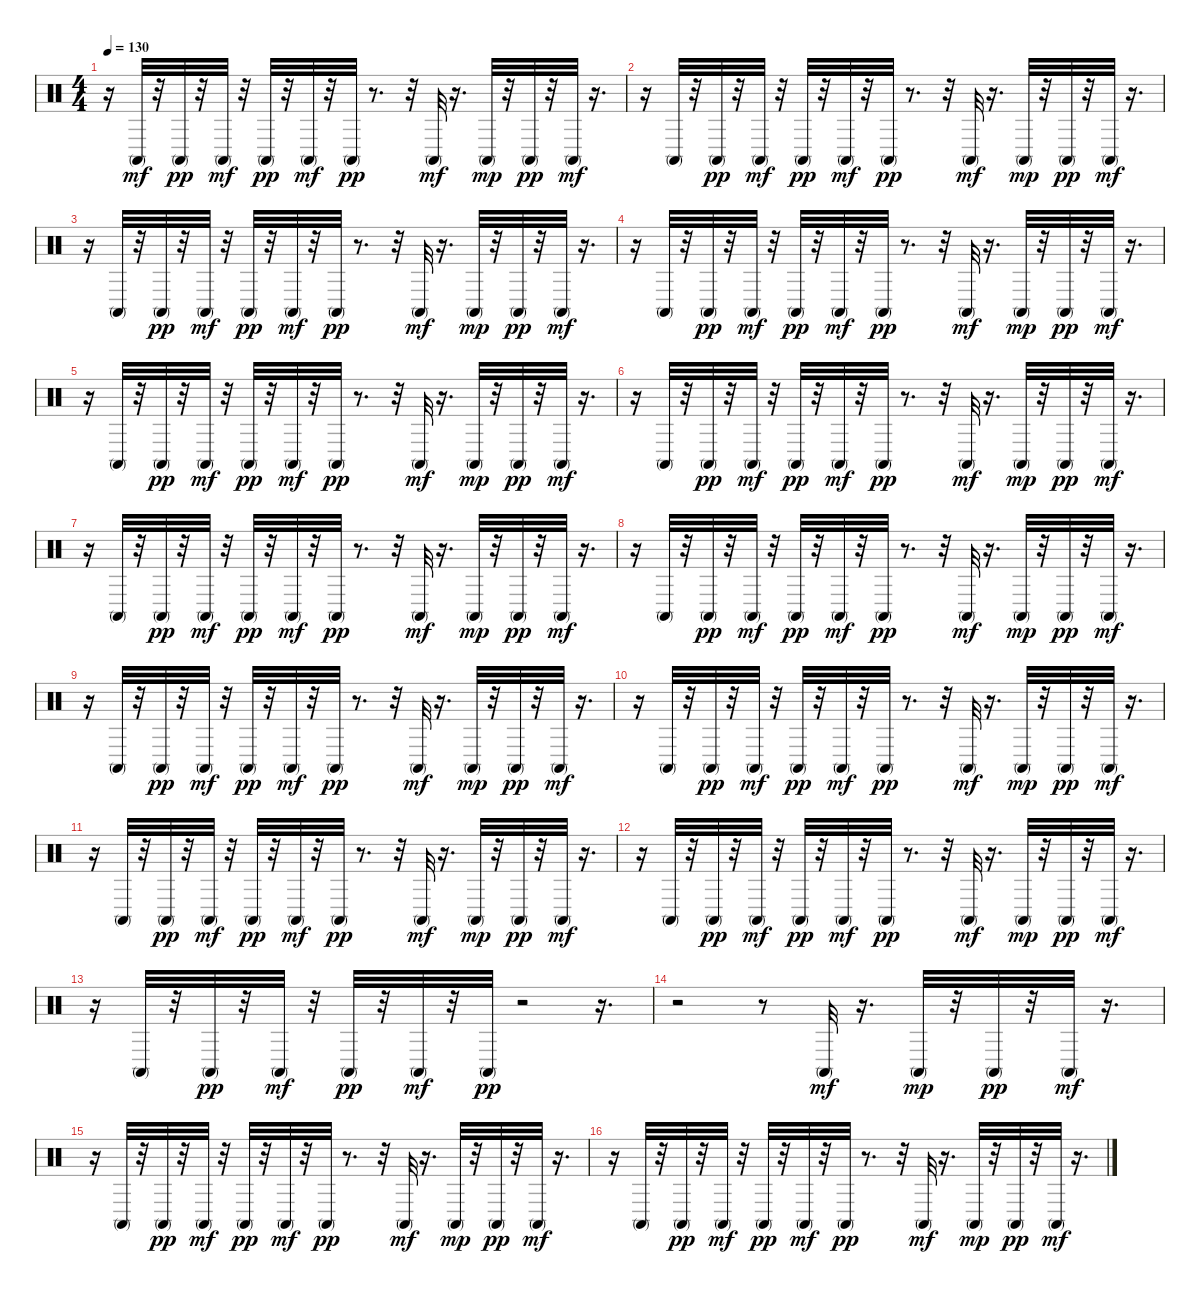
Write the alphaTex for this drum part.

\track "" {instrument percussion}
\staff {score}
\articulation defaults
\ts (4 4)
\tempo 130
\clef neutral
\ks c
r.16{dy mf} "Conga high (mute)".32 r.32 "Conga high (mute)".32{dy pp} r.32 "Conga high (mute)".32{dy mf} r.32 "Conga high (mute)".32{dy pp} r.32 "Conga high (mute)".32{dy mf} r.32 "Conga high (mute)".32{dy pp} r.8{d} r.32 "Conga high (mute)".32{dy mf} r.16{d} "Conga high (mute)".32{dy mp} r.32 "Conga high (mute)".32{dy pp} r.32 "Conga high (mute)".32{dy mf} r.16{d} |
r.16 "Conga high (mute)".32 r.32 "Conga high (mute)".32{dy pp} r.32 "Conga high (mute)".32{dy mf} r.32 "Conga high (mute)".32{dy pp} r.32 "Conga high (mute)".32{dy mf} r.32 "Conga high (mute)".32{dy pp} r.8{d} r.32 "Conga high (mute)".32{dy mf} r.16{d} "Conga high (mute)".32{dy mp} r.32 "Conga high (mute)".32{dy pp} r.32 "Conga high (mute)".32{dy mf} r.16{d} |
r.16 "Conga high (mute)".32 r.32 "Conga high (mute)".32{dy pp} r.32 "Conga high (mute)".32{dy mf} r.32 "Conga high (mute)".32{dy pp} r.32 "Conga high (mute)".32{dy mf} r.32 "Conga high (mute)".32{dy pp} r.8{d} r.32 "Conga high (mute)".32{dy mf} r.16{d} "Conga high (mute)".32{dy mp} r.32 "Conga high (mute)".32{dy pp} r.32 "Conga high (mute)".32{dy mf} r.16{d} |
r.16 "Conga high (mute)".32 r.32 "Conga high (mute)".32{dy pp} r.32 "Conga high (mute)".32{dy mf} r.32 "Conga high (mute)".32{dy pp} r.32 "Conga high (mute)".32{dy mf} r.32 "Conga high (mute)".32{dy pp} r.8{d} r.32 "Conga high (mute)".32{dy mf} r.16{d} "Conga high (mute)".32{dy mp} r.32 "Conga high (mute)".32{dy pp} r.32 "Conga high (mute)".32{dy mf} r.16{d} |
r.16 "Conga high (mute)".32 r.32 "Conga high (mute)".32{dy pp} r.32 "Conga high (mute)".32{dy mf} r.32 "Conga high (mute)".32{dy pp} r.32 "Conga high (mute)".32{dy mf} r.32 "Conga high (mute)".32{dy pp} r.8{d} r.32 "Conga high (mute)".32{dy mf} r.16{d} "Conga high (mute)".32{dy mp} r.32 "Conga high (mute)".32{dy pp} r.32 "Conga high (mute)".32{dy mf} r.16{d} |
r.16 "Conga high (mute)".32 r.32 "Conga high (mute)".32{dy pp} r.32 "Conga high (mute)".32{dy mf} r.32 "Conga high (mute)".32{dy pp} r.32 "Conga high (mute)".32{dy mf} r.32 "Conga high (mute)".32{dy pp} r.8{d} r.32 "Conga high (mute)".32{dy mf} r.16{d} "Conga high (mute)".32{dy mp} r.32 "Conga high (mute)".32{dy pp} r.32 "Conga high (mute)".32{dy mf} r.16{d} |
r.16 "Conga high (mute)".32 r.32 "Conga high (mute)".32{dy pp} r.32 "Conga high (mute)".32{dy mf} r.32 "Conga high (mute)".32{dy pp} r.32 "Conga high (mute)".32{dy mf} r.32 "Conga high (mute)".32{dy pp} r.8{d} r.32 "Conga high (mute)".32{dy mf} r.16{d} "Conga high (mute)".32{dy mp} r.32 "Conga high (mute)".32{dy pp} r.32 "Conga high (mute)".32{dy mf} r.16{d} |
r.16 "Conga high (mute)".32 r.32 "Conga high (mute)".32{dy pp} r.32 "Conga high (mute)".32{dy mf} r.32 "Conga high (mute)".32{dy pp} r.32 "Conga high (mute)".32{dy mf} r.32 "Conga high (mute)".32{dy pp} r.8{d} r.32 "Conga high (mute)".32{dy mf} r.16{d} "Conga high (mute)".32{dy mp} r.32 "Conga high (mute)".32{dy pp} r.32 "Conga high (mute)".32{dy mf} r.16{d} |
r.16 "Conga high (mute)".32 r.32 "Conga high (mute)".32{dy pp} r.32 "Conga high (mute)".32{dy mf} r.32 "Conga high (mute)".32{dy pp} r.32 "Conga high (mute)".32{dy mf} r.32 "Conga high (mute)".32{dy pp} r.8{d} r.32 "Conga high (mute)".32{dy mf} r.16{d} "Conga high (mute)".32{dy mp} r.32 "Conga high (mute)".32{dy pp} r.32 "Conga high (mute)".32{dy mf} r.16{d} |
r.16 "Conga high (mute)".32 r.32 "Conga high (mute)".32{dy pp} r.32 "Conga high (mute)".32{dy mf} r.32 "Conga high (mute)".32{dy pp} r.32 "Conga high (mute)".32{dy mf} r.32 "Conga high (mute)".32{dy pp} r.8{d} r.32 "Conga high (mute)".32{dy mf} r.16{d} "Conga high (mute)".32{dy mp} r.32 "Conga high (mute)".32{dy pp} r.32 "Conga high (mute)".32{dy mf} r.16{d} |
r.16 "Conga high (mute)".32 r.32 "Conga high (mute)".32{dy pp} r.32 "Conga high (mute)".32{dy mf} r.32 "Conga high (mute)".32{dy pp} r.32 "Conga high (mute)".32{dy mf} r.32 "Conga high (mute)".32{dy pp} r.8{d} r.32 "Conga high (mute)".32{dy mf} r.16{d} "Conga high (mute)".32{dy mp} r.32 "Conga high (mute)".32{dy pp} r.32 "Conga high (mute)".32{dy mf} r.16{d} |
r.16 "Conga high (mute)".32 r.32 "Conga high (mute)".32{dy pp} r.32 "Conga high (mute)".32{dy mf} r.32 "Conga high (mute)".32{dy pp} r.32 "Conga high (mute)".32{dy mf} r.32 "Conga high (mute)".32{dy pp} r.8{d} r.32 "Conga high (mute)".32{dy mf} r.16{d} "Conga high (mute)".32{dy mp} r.32 "Conga high (mute)".32{dy pp} r.32 "Conga high (mute)".32{dy mf} r.16{d} |
r.16 "Conga high (mute)".32 r.32 "Conga high (mute)".32{dy pp} r.32 "Conga high (mute)".32{dy mf} r.32 "Conga high (mute)".32{dy pp} r.32 "Conga high (mute)".32{dy mf} r.32 "Conga high (mute)".32{dy pp} r.2 r.16{d} |
r.2 r.8 "Conga high (mute)".32{dy mf} r.16{d} "Conga high (mute)".32{dy mp} r.32 "Conga high (mute)".32{dy pp} r.32 "Conga high (mute)".32{dy mf} r.16{d} |
r.16 "Conga high (mute)".32 r.32 "Conga high (mute)".32{dy pp} r.32 "Conga high (mute)".32{dy mf} r.32 "Conga high (mute)".32{dy pp} r.32 "Conga high (mute)".32{dy mf} r.32 "Conga high (mute)".32{dy pp} r.8{d} r.32 "Conga high (mute)".32{dy mf} r.16{d} "Conga high (mute)".32{dy mp} r.32 "Conga high (mute)".32{dy pp} r.32 "Conga high (mute)".32{dy mf} r.16{d} |
r.16 "Conga high (mute)".32 r.32 "Conga high (mute)".32{dy pp} r.32 "Conga high (mute)".32{dy mf} r.32 "Conga high (mute)".32{dy pp} r.32 "Conga high (mute)".32{dy mf} r.32 "Conga high (mute)".32{dy pp} r.8{d} r.32 "Conga high (mute)".32{dy mf} r.16{d} "Conga high (mute)".32{dy mp} r.32 "Conga high (mute)".32{dy pp} r.32 "Conga high (mute)".32{dy mf} r.16{d}
